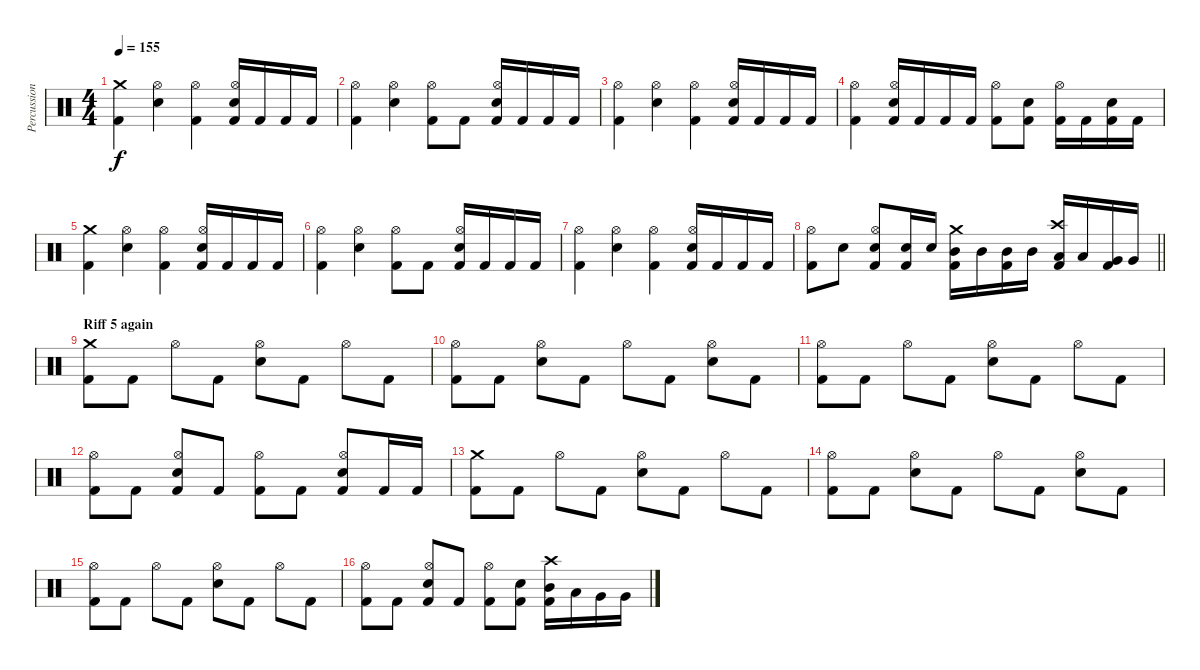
\track ("Percussion" "Percussion") {instrument percussion}
\staff {score}
\articulation defaults
\ts (4 4)
\tempo 155
\clef neutral
\ks c
("Crash medium (hit)" "Kick (hit) 2").4{dy f} ("Hi-Hat (open)" "Snare (hit) 2").4 ("Hi-Hat (open)" "Kick (hit) 2").4 ("Kick (hit) 2" "Hi-Hat (open)" "Snare (hit) 2").16 "Kick (hit) 2".16 "Kick (hit) 2".16 "Kick (hit) 2".16 |
("Hi-Hat (open)" "Kick (hit) 2").4 ("Hi-Hat (open)" "Snare (hit) 2").4 ("Hi-Hat (open)" "Kick (hit) 2").8 "Kick (hit) 2".8 ("Kick (hit) 2" "Hi-Hat (open)" "Snare (hit) 2").16 "Kick (hit) 2".16 "Kick (hit) 2".16 "Kick (hit) 2".16 |
("Hi-Hat (open)" "Kick (hit) 2").4 ("Hi-Hat (open)" "Snare (hit) 2").4 ("Hi-Hat (open)" "Kick (hit) 2").4 ("Kick (hit) 2" "Hi-Hat (open)" "Snare (hit) 2").16 "Kick (hit) 2".16 "Kick (hit) 2".16 "Kick (hit) 2".16 |
("Hi-Hat (open)" "Kick (hit) 2").4 ("Kick (hit) 2" "Hi-Hat (open)" "Snare (hit) 2").16 "Kick (hit) 2".16 "Kick (hit) 2".16 "Kick (hit) 2".16 ("Hi-Hat (open)" "Kick (hit) 2").8 ("Kick (hit) 2" "Snare (hit) 2").8 ("Hi-Hat (open)" "Kick (hit) 2").16 "Kick (hit) 2".16 ("Kick (hit) 2" "Snare (hit) 2").16 "Kick (hit) 2".16 |
("Crash medium (hit)" "Kick (hit) 2").4 ("Hi-Hat (open)" "Snare (hit) 2").4 ("Hi-Hat (open)" "Kick (hit) 2").4 ("Kick (hit) 2" "Hi-Hat (open)" "Snare (hit) 2").16 "Kick (hit) 2".16 "Kick (hit) 2".16 "Kick (hit) 2".16 |
("Hi-Hat (open)" "Kick (hit) 2").4 ("Hi-Hat (open)" "Snare (hit) 2").4 ("Hi-Hat (open)" "Kick (hit) 2").8 "Kick (hit) 2".8 ("Kick (hit) 2" "Hi-Hat (open)" "Snare (hit) 2").16 "Kick (hit) 2".16 "Kick (hit) 2".16 "Kick (hit) 2".16 |
("Hi-Hat (open)" "Kick (hit) 2").4 ("Hi-Hat (open)" "Snare (hit) 2").4 ("Hi-Hat (open)" "Kick (hit) 2").4 ("Kick (hit) 2" "Hi-Hat (open)" "Snare (hit) 2").16 "Kick (hit) 2".16 "Kick (hit) 2".16 "Kick (hit) 2".16 |
\barLineRight lightlight
("Hi-Hat (open)" "Kick (hit) 2").8 "Snare (hit) 2".8 ("Kick (hit) 2" "Hi-Hat (open)" "Snare (hit) 2").8 ("Kick (hit) 2" "Snare (hit) 2").16 "Snare (hit) 2".16 ("Kick (hit) 2" "Crash medium (hit)" "Mid Tom (hit)").16 "Mid Tom (hit)".16 ("Kick (hit) 2" "Mid Tom (hit)").16 "Mid Tom (hit)".16 ("Kick (hit) 2" "Crash high (hit)" "Low Tom (hit)").16 "Low Tom (hit)".16 ("Kick (hit) 2" "Very Low Tom (hit)").16 "Very Low Tom (hit)".16 |
\section ("" "Riff 5 again")
("Crash medium (hit)" "Kick (hit) 2").8 "Kick (hit) 2".8 "Hi-Hat (open)".8 "Kick (hit) 2".8 ("Hi-Hat (open)" "Snare (hit) 2").8 "Kick (hit) 2".8 "Hi-Hat (open)".8 "Kick (hit) 2".8 |
("Hi-Hat (open)" "Kick (hit) 2").8 "Kick (hit) 2".8 ("Hi-Hat (open)" "Snare (hit) 2").8 "Kick (hit) 2".8 "Hi-Hat (open)".8 "Kick (hit) 2".8 ("Hi-Hat (open)" "Snare (hit) 2").8 "Kick (hit) 2".8 |
("Hi-Hat (open)" "Kick (hit) 2").8 "Kick (hit) 2".8 "Hi-Hat (open)".8 "Kick (hit) 2".8 ("Hi-Hat (open)" "Snare (hit) 2").8 "Kick (hit) 2".8 "Hi-Hat (open)".8 "Kick (hit) 2".8 |
("Hi-Hat (open)" "Kick (hit) 2").8 "Kick (hit) 2".8 ("Kick (hit) 2" "Hi-Hat (open)" "Snare (hit) 2").8 "Kick (hit) 2".8 ("Hi-Hat (open)" "Kick (hit) 2").8 "Kick (hit) 2".8 ("Kick (hit) 2" "Hi-Hat (open)" "Snare (hit) 2").8 "Kick (hit) 2".16 "Kick (hit) 2".16 |
("Crash medium (hit)" "Kick (hit) 2").8 "Kick (hit) 2".8 "Hi-Hat (open)".8 "Kick (hit) 2".8 ("Hi-Hat (open)" "Snare (hit) 2").8 "Kick (hit) 2".8 "Hi-Hat (open)".8 "Kick (hit) 2".8 |
("Hi-Hat (open)" "Kick (hit) 2").8 "Kick (hit) 2".8 ("Hi-Hat (open)" "Snare (hit) 2").8 "Kick (hit) 2".8 "Hi-Hat (open)".8 "Kick (hit) 2".8 ("Hi-Hat (open)" "Snare (hit) 2").8 "Kick (hit) 2".8 |
("Hi-Hat (open)" "Kick (hit) 2").8 "Kick (hit) 2".8 "Hi-Hat (open)".8 "Kick (hit) 2".8 ("Hi-Hat (open)" "Snare (hit) 2").8 "Kick (hit) 2".8 "Hi-Hat (open)".8 "Kick (hit) 2".8 |
("Hi-Hat (open)" "Kick (hit) 2").8 "Kick (hit) 2".8 ("Kick (hit) 2" "Hi-Hat (open)" "Snare (hit) 2").8 "Kick (hit) 2".8 ("Hi-Hat (open)" "Kick (hit) 2").8 ("Kick (hit) 2" "Snare (hit) 2").8 ("Kick (hit) 2" "Crash high (hit)" "Mid Tom (hit)").16 "Low Tom (hit)".16 "Very Low Tom (hit)".16 "Very Low Tom (hit)".16
